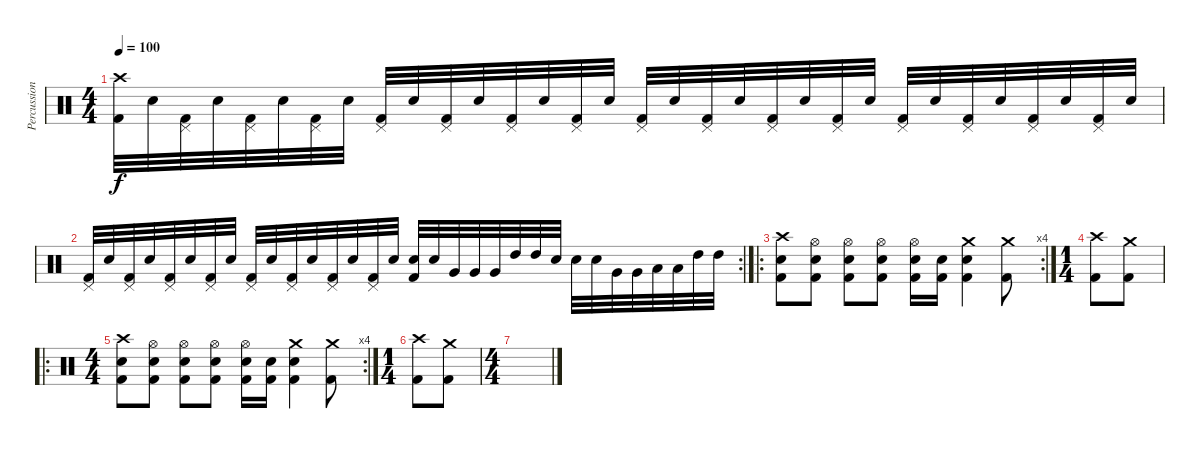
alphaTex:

\track ("Percussion" "Percussion") {instrument percussion}
\staff {score}
\articulation defaults
\ts (4 4)
\tempo 100
\clef neutral
\ks c
("Crash high (hit)" "Kick (hit) 2").32{dy f} "Electric Snare (hit)".32 ("Pedal Hi-Hat (hit)" "Kick (hit) 2").32 "Electric Snare (hit)".32 ("Pedal Hi-Hat (hit)" "Kick (hit) 2").32 "Electric Snare (hit)".32 ("Pedal Hi-Hat (hit)" "Kick (hit) 2").32 "Electric Snare (hit)".32 ("Pedal Hi-Hat (hit)" "Kick (hit) 2").32 "Electric Snare (hit)".32 ("Pedal Hi-Hat (hit)" "Kick (hit) 2").32 "Electric Snare (hit)".32 ("Pedal Hi-Hat (hit)" "Kick (hit) 2").32 "Electric Snare (hit)".32 ("Pedal Hi-Hat (hit)" "Kick (hit) 2").32 "Electric Snare (hit)".32 ("Pedal Hi-Hat (hit)" "Kick (hit) 2").32 "Electric Snare (hit)".32 ("Pedal Hi-Hat (hit)" "Kick (hit) 2").32 "Electric Snare (hit)".32 ("Pedal Hi-Hat (hit)" "Kick (hit) 2").32 "Electric Snare (hit)".32 ("Pedal Hi-Hat (hit)" "Kick (hit) 2").32 "Electric Snare (hit)".32 ("Pedal Hi-Hat (hit)" "Kick (hit) 2").32 "Electric Snare (hit)".32 ("Pedal Hi-Hat (hit)" "Kick (hit) 2").32 "Electric Snare (hit)".32 ("Pedal Hi-Hat (hit)" "Kick (hit) 2").32 "Electric Snare (hit)".32 ("Pedal Hi-Hat (hit)" "Kick (hit) 2").32 "Electric Snare (hit)".32 |
\rc 2
("Pedal Hi-Hat (hit)" "Kick (hit) 2").32 "Electric Snare (hit)".32 ("Pedal Hi-Hat (hit)" "Kick (hit) 2").32 "Electric Snare (hit)".32 ("Pedal Hi-Hat (hit)" "Kick (hit) 2").32 "Electric Snare (hit)".32 ("Pedal Hi-Hat (hit)" "Kick (hit) 2").32 "Electric Snare (hit)".32 ("Pedal Hi-Hat (hit)" "Kick (hit) 2").32 "Electric Snare (hit)".32 ("Pedal Hi-Hat (hit)" "Kick (hit) 2").32 "Electric Snare (hit)".32 ("Pedal Hi-Hat (hit)" "Kick (hit) 2").32 "Electric Snare (hit)".32 ("Pedal Hi-Hat (hit)" "Kick (hit) 2").32 "Electric Snare (hit)".32 ("Electric Snare (hit)" "Kick (hit) 2").32 "Electric Snare (hit)".32 "Very Low Tom (hit)".32 "Very Low Tom (hit)".32 "Very Low Tom (hit)".32 "High Tom (hit)".32 "High Tom (hit)".32 "Electric Snare (hit)".32 "Electric Snare (hit)".32 "Electric Snare (hit)".32 "Very Low Tom (hit)".32 "Very Low Tom (hit)".32 "Low Tom (hit)".32 "Low Tom (hit)".32 "High Tom (hit)".32 "High Tom (hit)".32 |
\ro
\rc 4
("Crash high (hit)" "Electric Snare (hit)" "Kick (hit) 2").8 ("Hi-Hat (open)" "Electric Snare (hit)" "Kick (hit) 2").8 ("Hi-Hat (open)" "Electric Snare (hit)" "Kick (hit) 2").8 ("Hi-Hat (open)" "Electric Snare (hit)" "Kick (hit) 2").8 ("Hi-Hat (open)" "Electric Snare (hit)" "Kick (hit) 2").16 ("Electric Snare (hit)" "Kick (hit) 2").16 ("Crash medium (hit)" "Electric Snare (hit)" "Kick (hit) 2").4 ("Crash medium (hit)" "Kick (hit) 2").8 |
\ts (1 4)
("Crash high (hit)" "Kick (hit) 2").8 ("Crash medium (hit)" "Kick (hit) 2").8 |
\ro
\rc 4
\ts (4 4)
("Crash high (hit)" "Electric Snare (hit)" "Kick (hit) 2").8 ("Hi-Hat (open)" "Electric Snare (hit)" "Kick (hit) 2").8 ("Hi-Hat (open)" "Electric Snare (hit)" "Kick (hit) 2").8 ("Hi-Hat (open)" "Electric Snare (hit)" "Kick (hit) 2").8 ("Hi-Hat (open)" "Electric Snare (hit)" "Kick (hit) 2").16 ("Electric Snare (hit)" "Kick (hit) 2").16 ("Crash medium (hit)" "Electric Snare (hit)" "Kick (hit) 2").4 ("Crash medium (hit)" "Kick (hit) 2").8 |
\ts (1 4)
("Crash high (hit)" "Kick (hit) 2").8 ("Crash medium (hit)" "Kick (hit) 2").8 |
\ts (4 4)
